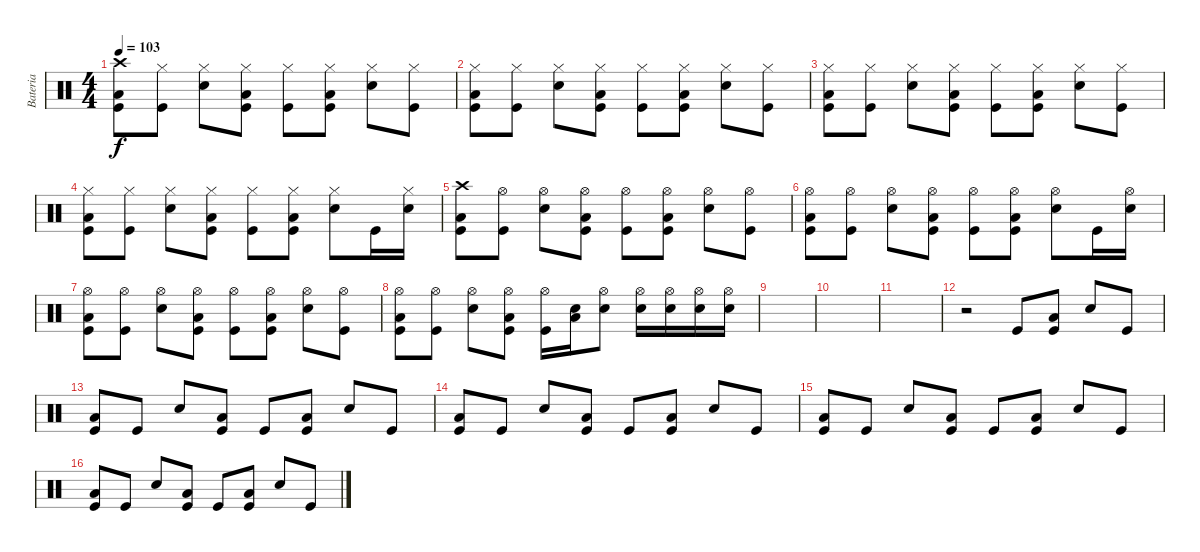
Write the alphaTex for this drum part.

\track ("Bateria" "Bateria") {instrument percussion}
\staff {score}
\articulation defaults
\ts (4 4)
\tempo 103
\clef neutral
\ks c
("Crash high (hit)" "Kick (hit)" "Low Tom (hit)").8{dy f} ("Hi-Hat (closed)" "Kick (hit)").8 ("Hi-Hat (closed)" "Snare (hit) 2").8 ("Hi-Hat (closed)" "Kick (hit)" "Low Tom (hit)").8 ("Hi-Hat (closed)" "Kick (hit)").8 ("Hi-Hat (closed)" "Kick (hit)" "Low Tom (hit)").8 ("Hi-Hat (closed)" "Snare (hit) 2").8 ("Hi-Hat (closed)" "Kick (hit)").8 |
("Hi-Hat (closed)" "Kick (hit)" "Low Tom (hit)").8 ("Hi-Hat (closed)" "Kick (hit)").8 ("Hi-Hat (closed)" "Snare (hit) 2").8 ("Hi-Hat (closed)" "Kick (hit)" "Low Tom (hit)").8 ("Hi-Hat (closed)" "Kick (hit)").8 ("Hi-Hat (closed)" "Kick (hit)" "Low Tom (hit)").8 ("Hi-Hat (closed)" "Snare (hit) 2").8 ("Hi-Hat (closed)" "Kick (hit)").8 |
("Hi-Hat (closed)" "Kick (hit)" "Low Tom (hit)").8 ("Hi-Hat (closed)" "Kick (hit)").8 ("Hi-Hat (closed)" "Snare (hit) 2").8 ("Hi-Hat (closed)" "Kick (hit)" "Low Tom (hit)").8 ("Hi-Hat (closed)" "Kick (hit)").8 ("Hi-Hat (closed)" "Kick (hit)" "Low Tom (hit)").8 ("Hi-Hat (closed)" "Snare (hit) 2").8 ("Hi-Hat (closed)" "Kick (hit)").8 |
("Hi-Hat (closed)" "Kick (hit)" "Low Tom (hit)").8 ("Hi-Hat (closed)" "Kick (hit)").8 ("Hi-Hat (closed)" "Snare (hit) 2").8 ("Hi-Hat (closed)" "Kick (hit)" "Low Tom (hit)").8 ("Hi-Hat (closed)" "Kick (hit)").8 ("Hi-Hat (closed)" "Kick (hit)" "Low Tom (hit)").8 ("Hi-Hat (closed)" "Snare (hit) 2").8 "Kick (hit)".16 ("Hi-Hat (closed)" "Snare (hit) 2").16 |
("Crash high (hit)" "Kick (hit)" "Low Tom (hit)").8 ("Hi-Hat (open)" "Kick (hit)").8 ("Hi-Hat (open)" "Snare (hit) 2").8 ("Hi-Hat (open)" "Kick (hit)" "Low Tom (hit)").8 ("Hi-Hat (open)" "Kick (hit)").8 ("Hi-Hat (open)" "Kick (hit)" "Low Tom (hit)").8 ("Hi-Hat (open)" "Snare (hit) 2").8 ("Hi-Hat (open)" "Kick (hit)").8 |
("Hi-Hat (open)" "Kick (hit)" "Low Tom (hit)").8 ("Hi-Hat (open)" "Kick (hit)").8 ("Hi-Hat (open)" "Snare (hit) 2").8 ("Hi-Hat (open)" "Kick (hit)" "Low Tom (hit)").8 ("Hi-Hat (open)" "Kick (hit)").8 ("Hi-Hat (open)" "Kick (hit)" "Low Tom (hit)").8 ("Hi-Hat (open)" "Snare (hit) 2").8 "Kick (hit)".16 ("Hi-Hat (open)" "Snare (hit) 2").16 |
("Hi-Hat (open)" "Kick (hit)" "Low Tom (hit)").8 ("Hi-Hat (open)" "Kick (hit)").8 ("Hi-Hat (open)" "Snare (hit) 2").8 ("Hi-Hat (open)" "Kick (hit)" "Low Tom (hit)").8 ("Hi-Hat (open)" "Kick (hit)").8 ("Hi-Hat (open)" "Kick (hit)" "Low Tom (hit)").8 ("Hi-Hat (open)" "Snare (hit) 2").8 ("Hi-Hat (open)" "Kick (hit)").8 |
("Hi-Hat (open)" "Kick (hit)" "Low Tom (hit)").8 ("Hi-Hat (open)" "Kick (hit)").8 ("Hi-Hat (open)" "Snare (hit) 2").8 ("Hi-Hat (open)" "Kick (hit)" "Low Tom (hit)").8 ("Hi-Hat (open)" "Kick (hit)").16 ("Snare (hit) 2" "Low Tom (hit)").16 ("Hi-Hat (open)" "Snare (hit) 2").8 ("Hi-Hat (open)" "Snare (hit) 2").16 ("Hi-Hat (open)" "Snare (hit) 2").16 ("Hi-Hat (open)" "Snare (hit) 2").16 ("Hi-Hat (open)" "Snare (hit) 2").16 |
|
|
|
r.2 "Kick (hit)".8 ("Kick (hit)" "Low Tom (hit)").8 "Snare (hit) 2".8 "Kick (hit)".8 |
("Kick (hit)" "Low Tom (hit)").8 "Kick (hit)".8 "Snare (hit) 2".8 ("Kick (hit)" "Low Tom (hit)").8 "Kick (hit)".8 ("Kick (hit)" "Low Tom (hit)").8 "Snare (hit) 2".8 "Kick (hit)".8 |
("Kick (hit)" "Low Tom (hit)").8 "Kick (hit)".8 "Snare (hit) 2".8 ("Kick (hit)" "Low Tom (hit)").8 "Kick (hit)".8 ("Kick (hit)" "Low Tom (hit)").8 "Snare (hit) 2".8 "Kick (hit)".8 |
("Kick (hit)" "Low Tom (hit)").8 "Kick (hit)".8 "Snare (hit) 2".8 ("Kick (hit)" "Low Tom (hit)").8 "Kick (hit)".8 ("Kick (hit)" "Low Tom (hit)").8 "Snare (hit) 2".8 "Kick (hit)".8 |
("Kick (hit)" "Low Tom (hit)").8 "Kick (hit)".8 "Snare (hit) 2".8 ("Kick (hit)" "Low Tom (hit)").8 "Kick (hit)".8 ("Kick (hit)" "Low Tom (hit)").8 "Snare (hit) 2".8 "Kick (hit)".8
